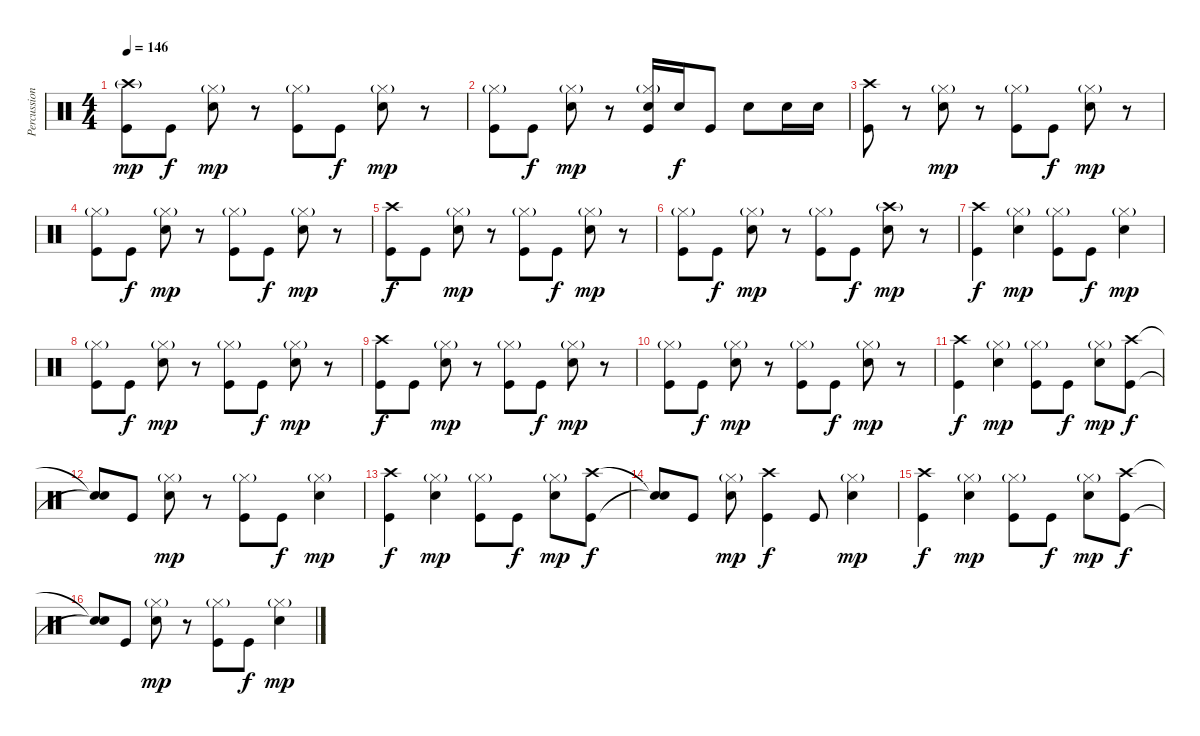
\track ("Percussion" "Percussion") {instrument percussion}
\staff {score}
\articulation defaults
\ts (4 4)
\tempo 146
\clef neutral
\ks c
("Crash high (hit)"{g} "Kick (hit)").8{dy mp} "Kick (hit)".8{dy f} ("Hi-Hat (closed)"{g} "Snare (hit) 2").8{dy mp} r.8 ("Hi-Hat (closed)"{g} "Kick (hit)").8 "Kick (hit)".8{dy f} ("Hi-Hat (closed)"{g} "Snare (hit) 2").8{dy mp} r.8 |
("Hi-Hat (closed)"{g} "Kick (hit)").8 "Kick (hit)".8{dy f} ("Hi-Hat (closed)"{g} "Snare (hit) 2").8{dy mp} r.8 ("Hi-Hat (closed)"{g} "Snare (hit) 2" "Kick (hit)").16 "Snare (hit) 2".16{dy f} "Kick (hit)".8 "Snare (hit) 2".8 "Snare (hit) 2".16 "Snare (hit) 2".16 |
("Crash high (hit)" "Kick (hit)").8 r.8 ("Hi-Hat (closed)"{g} "Snare (hit) 2").8{dy mp} r.8 ("Hi-Hat (closed)"{g} "Kick (hit)").8 "Kick (hit)".8{dy f} ("Hi-Hat (closed)"{g} "Snare (hit) 2").8{dy mp} r.8 |
("Hi-Hat (closed)"{g} "Kick (hit)").8 "Kick (hit)".8{dy f} ("Hi-Hat (closed)"{g} "Snare (hit) 2").8{dy mp} r.8 ("Hi-Hat (closed)"{g} "Kick (hit)").8 "Kick (hit)".8{dy f} ("Hi-Hat (closed)"{g} "Snare (hit) 2").8{dy mp} r.8 |
("Crash high (hit)" "Kick (hit)").8{dy f} "Kick (hit)".8 ("Hi-Hat (closed)"{g} "Snare (hit) 2").8{dy mp} r.8 ("Hi-Hat (closed)"{g} "Kick (hit)").8 "Kick (hit)".8{dy f} ("Hi-Hat (closed)"{g} "Snare (hit) 2").8{dy mp} r.8 |
("Hi-Hat (closed)"{g} "Kick (hit)").8 "Kick (hit)".8{dy f} ("Hi-Hat (closed)"{g} "Snare (hit) 2").8{dy mp} r.8 ("Hi-Hat (closed)"{g} "Kick (hit)").8 "Kick (hit)".8{dy f} ("Crash high (hit)"{g} "Snare (hit) 2").8{dy mp} r.8 |
("Crash high (hit)" "Kick (hit)").4{dy f} ("Hi-Hat (closed)"{g} "Snare (hit) 2").4{dy mp} ("Hi-Hat (closed)"{g} "Kick (hit)").8 "Kick (hit)".8{dy f} ("Hi-Hat (closed)"{g} "Snare (hit) 2").4{dy mp} |
("Hi-Hat (closed)"{g} "Kick (hit)").8 "Kick (hit)".8{dy f} ("Hi-Hat (closed)"{g} "Snare (hit) 2").8{dy mp} r.8 ("Hi-Hat (closed)"{g} "Kick (hit)").8 "Kick (hit)".8{dy f} ("Hi-Hat (closed)"{g} "Snare (hit) 2").8{dy mp} r.8 |
("Crash high (hit)" "Kick (hit)").8{dy f} "Kick (hit)".8 ("Hi-Hat (closed)"{g} "Snare (hit) 2").8{dy mp} r.8 ("Hi-Hat (closed)"{g} "Kick (hit)").8 "Kick (hit)".8{dy f} ("Hi-Hat (closed)"{g} "Snare (hit) 2").8{dy mp} r.8 |
("Hi-Hat (closed)"{g} "Kick (hit)").8 "Kick (hit)".8{dy f} ("Hi-Hat (closed)"{g} "Snare (hit) 2").8{dy mp} r.8 ("Hi-Hat (closed)"{g} "Kick (hit)").8 "Kick (hit)".8{dy f} ("Hi-Hat (closed)"{g} "Snare (hit) 2").8{dy mp} r.8 |
("Crash high (hit)" "Kick (hit)").4{dy f} ("Hi-Hat (closed)"{g} "Snare (hit) 2").4{dy mp} ("Hi-Hat (closed)"{g} "Kick (hit)").8 "Kick (hit)".8{dy f} ("Hi-Hat (closed)"{g} "Snare (hit) 2").8{dy mp} ("Crash high (hit)" "Kick (hit)").8{dy f} |
("Snare (hit)"{t} "Snare (hit)"{t}).8 "Kick (hit)".8 ("Hi-Hat (closed)"{g} "Snare (hit) 2").8{dy mp} r.8 ("Hi-Hat (closed)"{g} "Kick (hit)").8 "Kick (hit)".8{dy f} ("Hi-Hat (closed)"{g} "Snare (hit) 2").4{dy mp} |
("Crash high (hit)" "Kick (hit)").4{dy f} ("Hi-Hat (closed)"{g} "Snare (hit) 2").4{dy mp} ("Hi-Hat (closed)"{g} "Kick (hit)").8 "Kick (hit)".8{dy f} ("Hi-Hat (closed)"{g} "Snare (hit) 2").8{dy mp} ("Crash high (hit)" "Kick (hit)").8{dy f} |
("Snare (hit)"{t} "Snare (hit)"{t}).8 "Kick (hit)".8 ("Hi-Hat (closed)"{g} "Snare (hit) 2").8{dy mp} ("Crash high (hit)" "Kick (hit)").4{dy f} "Kick (hit)".8 ("Hi-Hat (closed)"{g} "Snare (hit) 2").4{dy mp} |
("Crash high (hit)" "Kick (hit)").4{dy f} ("Hi-Hat (closed)"{g} "Snare (hit) 2").4{dy mp} ("Hi-Hat (closed)"{g} "Kick (hit)").8 "Kick (hit)".8{dy f} ("Hi-Hat (closed)"{g} "Snare (hit) 2").8{dy mp} ("Crash high (hit)" "Kick (hit)").8{dy f} |
("Snare (hit)"{t} "Snare (hit)"{t}).8 "Kick (hit)".8 ("Hi-Hat (closed)"{g} "Snare (hit) 2").8{dy mp} r.8 ("Hi-Hat (closed)"{g} "Kick (hit)").8 "Kick (hit)".8{dy f} ("Hi-Hat (closed)"{g} "Snare (hit) 2").4{dy mp}
